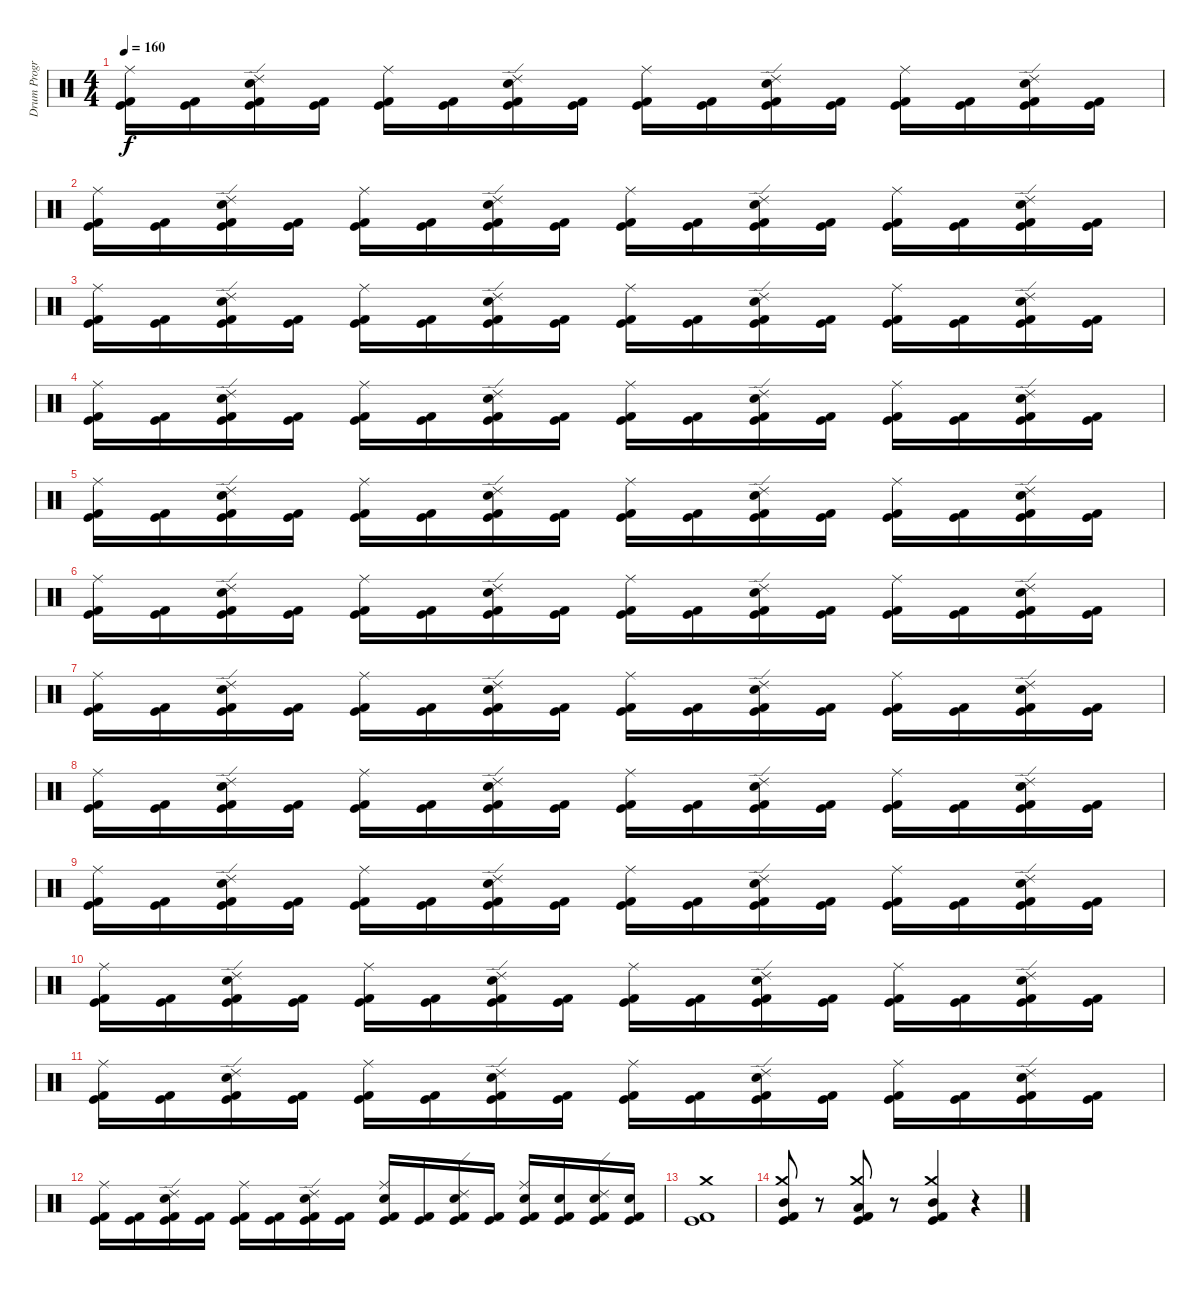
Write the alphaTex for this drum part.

\track ("Drum Program - BG" "Drum Progr") {instrument percussion}
\staff {score}
\articulation defaults
\ts (4 4)
\tempo 160
\clef neutral
\ks c
("Kick (hit)" "Kick (hit) 2" "Ride (middle)").16{dy f} ("Kick (hit)" "Kick (hit) 2").16 ("Kick (hit)" "Kick (hit) 2" "Electric Snare (hit)" "Ride (edge) 2").16 ("Kick (hit)" "Kick (hit) 2").16 ("Kick (hit)" "Kick (hit) 2" "Ride (middle)").16 ("Kick (hit)" "Kick (hit) 2").16 ("Kick (hit)" "Kick (hit) 2" "Electric Snare (hit)" "Ride (edge) 2").16 ("Kick (hit)" "Kick (hit) 2").16 ("Kick (hit)" "Kick (hit) 2" "Ride (middle)").16 ("Kick (hit)" "Kick (hit) 2").16 ("Kick (hit)" "Kick (hit) 2" "Electric Snare (hit)" "Ride (edge) 2").16 ("Kick (hit)" "Kick (hit) 2").16 ("Kick (hit)" "Kick (hit) 2" "Ride (middle)").16 ("Kick (hit)" "Kick (hit) 2").16 ("Kick (hit)" "Kick (hit) 2" "Electric Snare (hit)" "Ride (edge) 2").16 ("Kick (hit)" "Kick (hit) 2").16 |
("Kick (hit)" "Kick (hit) 2" "Ride (middle)").16 ("Kick (hit)" "Kick (hit) 2").16 ("Kick (hit)" "Kick (hit) 2" "Electric Snare (hit)" "Ride (edge) 2").16 ("Kick (hit)" "Kick (hit) 2").16 ("Kick (hit)" "Kick (hit) 2" "Ride (middle)").16 ("Kick (hit)" "Kick (hit) 2").16 ("Kick (hit)" "Kick (hit) 2" "Electric Snare (hit)" "Ride (edge) 2").16 ("Kick (hit)" "Kick (hit) 2").16 ("Kick (hit)" "Kick (hit) 2" "Ride (middle)").16 ("Kick (hit)" "Kick (hit) 2").16 ("Kick (hit)" "Kick (hit) 2" "Electric Snare (hit)" "Ride (edge) 2").16 ("Kick (hit)" "Kick (hit) 2").16 ("Kick (hit)" "Kick (hit) 2" "Ride (middle)").16 ("Kick (hit)" "Kick (hit) 2").16 ("Kick (hit)" "Kick (hit) 2" "Electric Snare (hit)" "Ride (edge) 2").16 ("Kick (hit)" "Kick (hit) 2").16 |
("Kick (hit)" "Kick (hit) 2" "Ride (middle)").16 ("Kick (hit)" "Kick (hit) 2").16 ("Kick (hit)" "Kick (hit) 2" "Electric Snare (hit)" "Ride (edge) 2").16 ("Kick (hit)" "Kick (hit) 2").16 ("Kick (hit)" "Kick (hit) 2" "Ride (middle)").16 ("Kick (hit)" "Kick (hit) 2").16 ("Kick (hit)" "Kick (hit) 2" "Electric Snare (hit)" "Ride (edge) 2").16 ("Kick (hit)" "Kick (hit) 2").16 ("Kick (hit)" "Kick (hit) 2" "Ride (middle)").16 ("Kick (hit)" "Kick (hit) 2").16 ("Kick (hit)" "Kick (hit) 2" "Electric Snare (hit)" "Ride (edge) 2").16 ("Kick (hit)" "Kick (hit) 2").16 ("Kick (hit)" "Kick (hit) 2" "Ride (middle)").16 ("Kick (hit)" "Kick (hit) 2").16 ("Kick (hit)" "Kick (hit) 2" "Electric Snare (hit)" "Ride (edge) 2").16 ("Kick (hit)" "Kick (hit) 2").16 |
("Kick (hit)" "Kick (hit) 2" "Ride (middle)").16 ("Kick (hit)" "Kick (hit) 2").16 ("Kick (hit)" "Kick (hit) 2" "Electric Snare (hit)" "Ride (edge) 2").16 ("Kick (hit)" "Kick (hit) 2").16 ("Kick (hit)" "Kick (hit) 2" "Ride (middle)").16 ("Kick (hit)" "Kick (hit) 2").16 ("Kick (hit)" "Kick (hit) 2" "Electric Snare (hit)" "Ride (edge) 2").16 ("Kick (hit)" "Kick (hit) 2").16 ("Kick (hit)" "Kick (hit) 2" "Ride (middle)").16 ("Kick (hit)" "Kick (hit) 2").16 ("Kick (hit)" "Kick (hit) 2" "Electric Snare (hit)" "Ride (edge) 2").16 ("Kick (hit)" "Kick (hit) 2").16 ("Kick (hit)" "Kick (hit) 2" "Ride (middle)").16 ("Kick (hit)" "Kick (hit) 2").16 ("Kick (hit)" "Kick (hit) 2" "Electric Snare (hit)" "Ride (edge) 2").16 ("Kick (hit)" "Kick (hit) 2").16 |
("Kick (hit)" "Kick (hit) 2" "Ride (middle)").16 ("Kick (hit)" "Kick (hit) 2").16 ("Kick (hit)" "Kick (hit) 2" "Electric Snare (hit)" "Ride (edge) 2").16 ("Kick (hit)" "Kick (hit) 2").16 ("Kick (hit)" "Kick (hit) 2" "Ride (middle)").16 ("Kick (hit)" "Kick (hit) 2").16 ("Kick (hit)" "Kick (hit) 2" "Electric Snare (hit)" "Ride (edge) 2").16 ("Kick (hit)" "Kick (hit) 2").16 ("Kick (hit)" "Kick (hit) 2" "Ride (middle)").16 ("Kick (hit)" "Kick (hit) 2").16 ("Kick (hit)" "Kick (hit) 2" "Electric Snare (hit)" "Ride (edge) 2").16 ("Kick (hit)" "Kick (hit) 2").16 ("Kick (hit)" "Kick (hit) 2" "Ride (middle)").16 ("Kick (hit)" "Kick (hit) 2").16 ("Kick (hit)" "Kick (hit) 2" "Electric Snare (hit)" "Ride (edge) 2").16 ("Kick (hit)" "Kick (hit) 2").16 |
("Kick (hit)" "Kick (hit) 2" "Ride (middle)").16 ("Kick (hit)" "Kick (hit) 2").16 ("Kick (hit)" "Kick (hit) 2" "Electric Snare (hit)" "Ride (edge) 2").16 ("Kick (hit)" "Kick (hit) 2").16 ("Kick (hit)" "Kick (hit) 2" "Ride (middle)").16 ("Kick (hit)" "Kick (hit) 2").16 ("Kick (hit)" "Kick (hit) 2" "Electric Snare (hit)" "Ride (edge) 2").16 ("Kick (hit)" "Kick (hit) 2").16 ("Kick (hit)" "Kick (hit) 2" "Ride (middle)").16 ("Kick (hit)" "Kick (hit) 2").16 ("Kick (hit)" "Kick (hit) 2" "Electric Snare (hit)" "Ride (edge) 2").16 ("Kick (hit)" "Kick (hit) 2").16 ("Kick (hit)" "Kick (hit) 2" "Ride (middle)").16 ("Kick (hit)" "Kick (hit) 2").16 ("Kick (hit)" "Kick (hit) 2" "Electric Snare (hit)" "Ride (edge) 2").16 ("Kick (hit)" "Kick (hit) 2").16 |
("Kick (hit)" "Kick (hit) 2" "Ride (middle)").16 ("Kick (hit)" "Kick (hit) 2").16 ("Kick (hit)" "Kick (hit) 2" "Electric Snare (hit)" "Ride (edge) 2").16 ("Kick (hit)" "Kick (hit) 2").16 ("Kick (hit)" "Kick (hit) 2" "Ride (middle)").16 ("Kick (hit)" "Kick (hit) 2").16 ("Kick (hit)" "Kick (hit) 2" "Electric Snare (hit)" "Ride (edge) 2").16 ("Kick (hit)" "Kick (hit) 2").16 ("Kick (hit)" "Kick (hit) 2" "Ride (middle)").16 ("Kick (hit)" "Kick (hit) 2").16 ("Kick (hit)" "Kick (hit) 2" "Electric Snare (hit)" "Ride (edge) 2").16 ("Kick (hit)" "Kick (hit) 2").16 ("Kick (hit)" "Kick (hit) 2" "Ride (middle)").16 ("Kick (hit)" "Kick (hit) 2").16 ("Kick (hit)" "Kick (hit) 2" "Electric Snare (hit)" "Ride (edge) 2").16 ("Kick (hit)" "Kick (hit) 2").16 |
("Kick (hit)" "Kick (hit) 2" "Ride (middle)").16 ("Kick (hit)" "Kick (hit) 2").16 ("Kick (hit)" "Kick (hit) 2" "Electric Snare (hit)" "Ride (edge) 2").16 ("Kick (hit)" "Kick (hit) 2").16 ("Kick (hit)" "Kick (hit) 2" "Ride (middle)").16 ("Kick (hit)" "Kick (hit) 2").16 ("Kick (hit)" "Kick (hit) 2" "Electric Snare (hit)" "Ride (edge) 2").16 ("Kick (hit)" "Kick (hit) 2").16 ("Kick (hit)" "Kick (hit) 2" "Ride (middle)").16 ("Kick (hit)" "Kick (hit) 2").16 ("Kick (hit)" "Kick (hit) 2" "Electric Snare (hit)" "Ride (edge) 2").16 ("Kick (hit)" "Kick (hit) 2").16 ("Kick (hit)" "Kick (hit) 2" "Ride (middle)").16 ("Kick (hit)" "Kick (hit) 2").16 ("Kick (hit)" "Kick (hit) 2" "Electric Snare (hit)" "Ride (edge) 2").16 ("Kick (hit)" "Kick (hit) 2").16 |
("Kick (hit)" "Kick (hit) 2" "Ride (middle)").16 ("Kick (hit)" "Kick (hit) 2").16 ("Kick (hit)" "Kick (hit) 2" "Electric Snare (hit)" "Ride (edge) 2").16 ("Kick (hit)" "Kick (hit) 2").16 ("Kick (hit)" "Kick (hit) 2" "Ride (middle)").16 ("Kick (hit)" "Kick (hit) 2").16 ("Kick (hit)" "Kick (hit) 2" "Electric Snare (hit)" "Ride (edge) 2").16 ("Kick (hit)" "Kick (hit) 2").16 ("Kick (hit)" "Kick (hit) 2" "Ride (middle)").16 ("Kick (hit)" "Kick (hit) 2").16 ("Kick (hit)" "Kick (hit) 2" "Electric Snare (hit)" "Ride (edge) 2").16 ("Kick (hit)" "Kick (hit) 2").16 ("Kick (hit)" "Kick (hit) 2" "Ride (middle)").16 ("Kick (hit)" "Kick (hit) 2").16 ("Kick (hit)" "Kick (hit) 2" "Electric Snare (hit)" "Ride (edge) 2").16 ("Kick (hit)" "Kick (hit) 2").16 |
("Kick (hit)" "Kick (hit) 2" "Ride (middle)").16 ("Kick (hit)" "Kick (hit) 2").16 ("Kick (hit)" "Kick (hit) 2" "Electric Snare (hit)" "Ride (edge) 2").16 ("Kick (hit)" "Kick (hit) 2").16 ("Kick (hit)" "Kick (hit) 2" "Ride (middle)").16 ("Kick (hit)" "Kick (hit) 2").16 ("Kick (hit)" "Kick (hit) 2" "Electric Snare (hit)" "Ride (edge) 2").16 ("Kick (hit)" "Kick (hit) 2").16 ("Kick (hit)" "Kick (hit) 2" "Ride (middle)").16 ("Kick (hit)" "Kick (hit) 2").16 ("Kick (hit)" "Kick (hit) 2" "Electric Snare (hit)" "Ride (edge) 2").16 ("Kick (hit)" "Kick (hit) 2").16 ("Kick (hit)" "Kick (hit) 2" "Ride (middle)").16 ("Kick (hit)" "Kick (hit) 2").16 ("Kick (hit)" "Kick (hit) 2" "Electric Snare (hit)" "Ride (edge) 2").16 ("Kick (hit)" "Kick (hit) 2").16 |
("Kick (hit)" "Kick (hit) 2" "Ride (middle)").16 ("Kick (hit)" "Kick (hit) 2").16 ("Kick (hit)" "Kick (hit) 2" "Electric Snare (hit)" "Ride (edge) 2").16 ("Kick (hit)" "Kick (hit) 2").16 ("Kick (hit)" "Kick (hit) 2" "Ride (middle)").16 ("Kick (hit)" "Kick (hit) 2").16 ("Kick (hit)" "Kick (hit) 2" "Electric Snare (hit)" "Ride (edge) 2").16 ("Kick (hit)" "Kick (hit) 2").16 ("Kick (hit)" "Kick (hit) 2" "Ride (middle)").16 ("Kick (hit)" "Kick (hit) 2").16 ("Kick (hit)" "Kick (hit) 2" "Electric Snare (hit)" "Ride (edge) 2").16 ("Kick (hit)" "Kick (hit) 2").16 ("Kick (hit)" "Kick (hit) 2" "Ride (middle)").16 ("Kick (hit)" "Kick (hit) 2").16 ("Kick (hit)" "Kick (hit) 2" "Electric Snare (hit)" "Ride (edge) 2").16 ("Kick (hit)" "Kick (hit) 2").16 |
("Kick (hit)" "Kick (hit) 2" "Ride (middle)").16 ("Kick (hit)" "Kick (hit) 2").16 ("Kick (hit)" "Kick (hit) 2" "Electric Snare (hit)" "Ride (edge) 2").16 ("Kick (hit)" "Kick (hit) 2").16 ("Kick (hit)" "Kick (hit) 2" "Ride (middle)").16 ("Kick (hit)" "Kick (hit) 2").16 ("Kick (hit)" "Kick (hit) 2" "Electric Snare (hit)" "Ride (edge) 2").16 ("Kick (hit)" "Kick (hit) 2").16 ("Kick (hit)" "Kick (hit) 2" "Electric Snare (hit)" "Ride (middle)").16 ("Kick (hit)" "Kick (hit) 2").16 ("Kick (hit)" "Kick (hit) 2" "Electric Snare (hit)" "Ride (edge) 2").16 ("Kick (hit)" "Kick (hit) 2").16 ("Kick (hit)" "Kick (hit) 2" "Electric Snare (hit)" "Ride (middle)").16 ("Kick (hit)" "Kick (hit) 2" "Electric Snare (hit)").16 ("Kick (hit)" "Kick (hit) 2" "Electric Snare (hit)" "Ride (edge) 2").16 ("Kick (hit)" "Kick (hit) 2" "Electric Snare (hit)").16 |
("Kick (hit)" "Kick (hit) 2" "Crash medium (hit)").1 |
("Mid Tom (hit)" "Kick (hit)" "Kick (hit) 2" "Crash medium (hit)").8 r.8 ("Low Tom (hit)" "Crash medium (hit)" "Kick (hit) 2" "Kick (hit)").8 r.8 ("Mid Tom (hit)" "Kick (hit) 2" "Kick (hit)" "Crash medium (hit)").4 r.4
